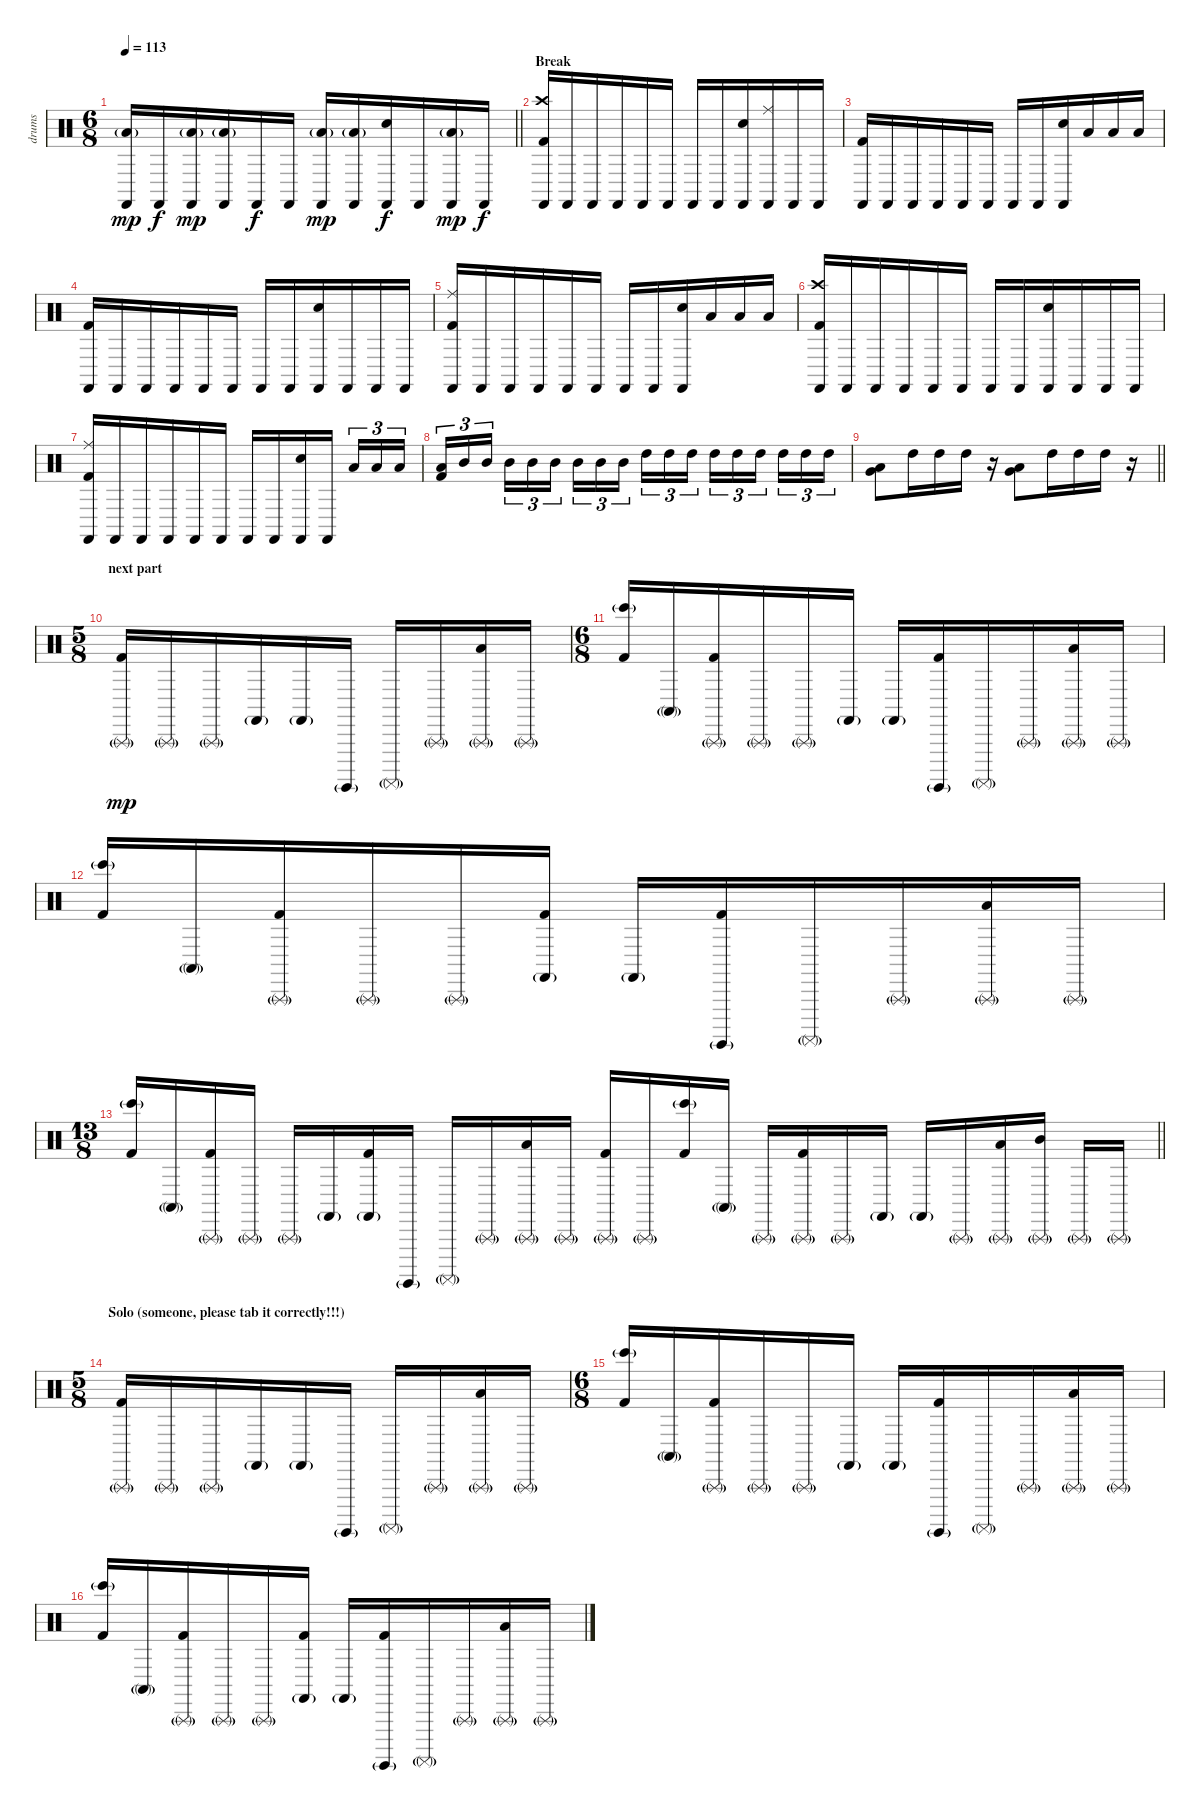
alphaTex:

\track ("drums" "drums") {instrument percussion}
\staff {score}
\articulation defaults
\ts (6 8)
\tempo 113
\clef neutral
\barLineRight lightlight
\ks c
("Low Tom (hit)"{g} "Castanets (hit)").16{dy mp} "Castanets (hit)".16{dy f} ("Low Tom (hit)"{g} "Castanets (hit)").16{dy mp} ("Low Tom (hit)"{g} "Castanets (hit)").16 "Castanets (hit)".16{dy f} "Castanets (hit)".16 ("Low Tom (hit)"{g} "Castanets (hit)").16{dy mp} ("Low Tom (hit)"{g} "Castanets (hit)").16 ("Electric Snare (hit)" "Castanets (hit)").16{dy f} "Castanets (hit)".16 ("Low Tom (hit)"{g} "Castanets (hit)").16{dy mp} "Castanets (hit)".16{dy f} |
\section ("" "Break")
("Crash high (hit)" "Kick (hit) 2" "Castanets (hit)").16 "Castanets (hit)".16 "Castanets (hit)".16 "Castanets (hit)".16 "Castanets (hit)".16 "Castanets (hit)".16 "Castanets (hit)".16 "Castanets (hit)".16 ("Electric Snare (hit)" "Castanets (hit)").16 ("Ride (middle)" "Castanets (hit)").16 "Castanets (hit)".16 "Castanets (hit)".16 |
("Kick (hit) 2" "Castanets (hit)").16 "Castanets (hit)".16 "Castanets (hit)".16 "Castanets (hit)".16 "Castanets (hit)".16 "Castanets (hit)".16 "Castanets (hit)".16 "Castanets (hit)".16 ("Electric Snare (hit)" "Castanets (hit)").16 "Low Tom (hit)".16 "Low Tom (hit)".16 "Low Tom (hit)".16 |
("Kick (hit) 2" "Castanets (hit)").16 "Castanets (hit)".16 "Castanets (hit)".16 "Castanets (hit)".16 "Castanets (hit)".16 "Castanets (hit)".16 "Castanets (hit)".16 "Castanets (hit)".16 ("Electric Snare (hit)" "Castanets (hit)").16 "Castanets (hit)".16 "Castanets (hit)".16 "Castanets (hit)".16 |
("Ride (middle)" "Kick (hit) 2" "Castanets (hit)").16 "Castanets (hit)".16 "Castanets (hit)".16 "Castanets (hit)".16 "Castanets (hit)".16 "Castanets (hit)".16 "Castanets (hit)".16 "Castanets (hit)".16 ("Electric Snare (hit)" "Castanets (hit)").16 "Low Tom (hit)".16 "Low Tom (hit)".16 "Low Tom (hit)".16 |
("Crash high (hit)" "Kick (hit) 2" "Castanets (hit)").16 "Castanets (hit)".16 "Castanets (hit)".16 "Castanets (hit)".16 "Castanets (hit)".16 "Castanets (hit)".16 "Castanets (hit)".16 "Castanets (hit)".16 ("Electric Snare (hit)" "Castanets (hit)").16 "Castanets (hit)".16 "Castanets (hit)".16 "Castanets (hit)".16 |
("Ride (middle)" "Kick (hit) 2" "Castanets (hit)").16 "Castanets (hit)".16 "Castanets (hit)".16 "Castanets (hit)".16 "Castanets (hit)".16 "Castanets (hit)".16 "Castanets (hit)".16 "Castanets (hit)".16 ("Electric Snare (hit)" "Castanets (hit)").16 "Castanets (hit)".16 "Low Tom (hit)".16{tu (3 2)} "Low Tom (hit)".16{tu (3 2)} "Low Tom (hit)".16{tu (3 2)} |
("Kick (hit) 2" "Low Tom (hit)").16{tu (3 2)} "Mid Tom (hit)".16{tu (3 2)} "Mid Tom (hit)".16{tu (3 2)} "Mid Tom (hit)".16{tu (3 2)} "Mid Tom (hit)".16{tu (3 2)} "Mid Tom (hit)".16{tu (3 2)} "Mid Tom (hit)".16{tu (3 2)} "Mid Tom (hit)".16{tu (3 2)} "Mid Tom (hit)".16{tu (3 2)} "High Tom (hit)".16{tu (3 2)} "High Tom (hit)".16{tu (3 2)} "High Tom (hit)".16{tu (3 2)} "High Tom (hit)".16{tu (3 2)} "High Tom (hit)".16{tu (3 2)} "High Tom (hit)".16{tu (3 2)} "High Tom (hit)".16{tu (3 2)} "High Tom (hit)".16{tu (3 2)} "High Tom (hit)".16{tu (3 2)} |
\barLineRight lightlight
("Very Low Tom (hit)" "Low Tom (hit)").8 "High Tom (hit)".16 "High Tom (hit)".16 "High Tom (hit)".16 r.16 ("Very Low Tom (hit)" "Low Tom (hit)").8 "High Tom (hit)".16 "High Tom (hit)".16 "High Tom (hit)".16 r.16 |
\ts (5 8)
\section ("" "next part")
("Kick (hit) 2" "Triangle (rnute)"{g}).16{dy mp} "Triangle (rnute)"{g}.16 "Triangle (rnute)"{g}.16 "Castanets (hit)"{g}.16 "Castanets (hit)"{g}.16 "Surdo (hit)"{g}.16 "Surdo (mute)"{g}.16 "Triangle (rnute)"{g}.16 ("Low Tom (hit)" "Triangle (rnute)"{g}).16 "Triangle (rnute)"{g}.16 |
\ts (6 8)
("Kick (hit) 2" "Bongo High (hit)"{g}).16 "Conga high (mute)"{g}.16 ("Kick (hit) 2" "Triangle (rnute)"{g}).16 "Triangle (rnute)"{g}.16 "Triangle (rnute)"{g}.16 "Castanets (hit)"{g}.16 "Castanets (hit)"{g}.16 ("Kick (hit) 2" "Surdo (hit)"{g}).16 "Surdo (mute)"{g}.16 "Triangle (rnute)"{g}.16 ("Low Tom (hit)" "Triangle (rnute)"{g}).16 "Triangle (rnute)"{g}.16 |
("Kick (hit) 2" "Bongo High (hit)"{g}).16 "Conga high (mute)"{g}.16 ("Kick (hit) 2" "Triangle (rnute)"{g}).16 "Triangle (rnute)"{g}.16 "Triangle (rnute)"{g}.16 ("Kick (hit) 2" "Castanets (hit)"{g}).16 "Castanets (hit)"{g}.16 ("Kick (hit) 2" "Surdo (hit)"{g}).16 "Surdo (mute)"{g}.16 "Triangle (rnute)"{g}.16 ("Low Tom (hit)" "Triangle (rnute)"{g}).16 "Triangle (rnute)"{g}.16 |
\ts (13 8)
\barLineRight lightlight
("Kick (hit) 2" "Bongo High (hit)"{g}).16 "Conga high (mute)"{g}.16 ("Kick (hit) 2" "Triangle (rnute)"{g}).16 "Triangle (rnute)"{g}.16 "Triangle (rnute)"{g}.16 "Castanets (hit)"{g}.16 ("Kick (hit) 2" "Castanets (hit)"{g}).16 "Surdo (hit)"{g}.16 "Surdo (mute)"{g}.16 "Triangle (rnute)"{g}.16 ("Low Tom (hit)" "Triangle (rnute)"{g}).16 "Triangle (rnute)"{g}.16 ("Kick (hit) 2" "Triangle (rnute)"{g}).16 "Triangle (rnute)"{g}.16 ("Kick (hit) 2" "Bongo High (hit)"{g}).16 "Conga high (mute)"{g}.16 "Triangle (rnute)"{g}.16 ("Kick (hit) 2" "Triangle (rnute)"{g}).16 "Triangle (rnute)"{g}.16 "Castanets (hit)"{g}.16 "Castanets (hit)"{g}.16 "Triangle (rnute)"{g}.16 ("Low Tom (hit)" "Triangle (rnute)"{g}).16 ("Mid Tom (hit)" "Triangle (rnute)"{g}).16 "Triangle (rnute)"{g}.16 "Triangle (rnute)"{g}.16 |
\ts (5 8)
\section ("" "Solo (someone, please tab it correctly!!!)")
("Kick (hit) 2" "Triangle (rnute)"{g}).16 "Triangle (rnute)"{g}.16 "Triangle (rnute)"{g}.16 "Castanets (hit)"{g}.16 "Castanets (hit)"{g}.16 "Surdo (hit)"{g}.16 "Surdo (mute)"{g}.16 "Triangle (rnute)"{g}.16 ("Low Tom (hit)" "Triangle (rnute)"{g}).16 "Triangle (rnute)"{g}.16 |
\ts (6 8)
("Kick (hit) 2" "Bongo High (hit)"{g}).16 "Conga high (mute)"{g}.16 ("Kick (hit) 2" "Triangle (rnute)"{g}).16 "Triangle (rnute)"{g}.16 "Triangle (rnute)"{g}.16 "Castanets (hit)"{g}.16 "Castanets (hit)"{g}.16 ("Kick (hit) 2" "Surdo (hit)"{g}).16 "Surdo (mute)"{g}.16 "Triangle (rnute)"{g}.16 ("Low Tom (hit)" "Triangle (rnute)"{g}).16 "Triangle (rnute)"{g}.16 |
("Kick (hit) 2" "Bongo High (hit)"{g}).16 "Conga high (mute)"{g}.16 ("Kick (hit) 2" "Triangle (rnute)"{g}).16 "Triangle (rnute)"{g}.16 "Triangle (rnute)"{g}.16 ("Kick (hit) 2" "Castanets (hit)"{g}).16 "Castanets (hit)"{g}.16 ("Kick (hit) 2" "Surdo (hit)"{g}).16 "Surdo (mute)"{g}.16 "Triangle (rnute)"{g}.16 ("Low Tom (hit)" "Triangle (rnute)"{g}).16 "Triangle (rnute)"{g}.16
